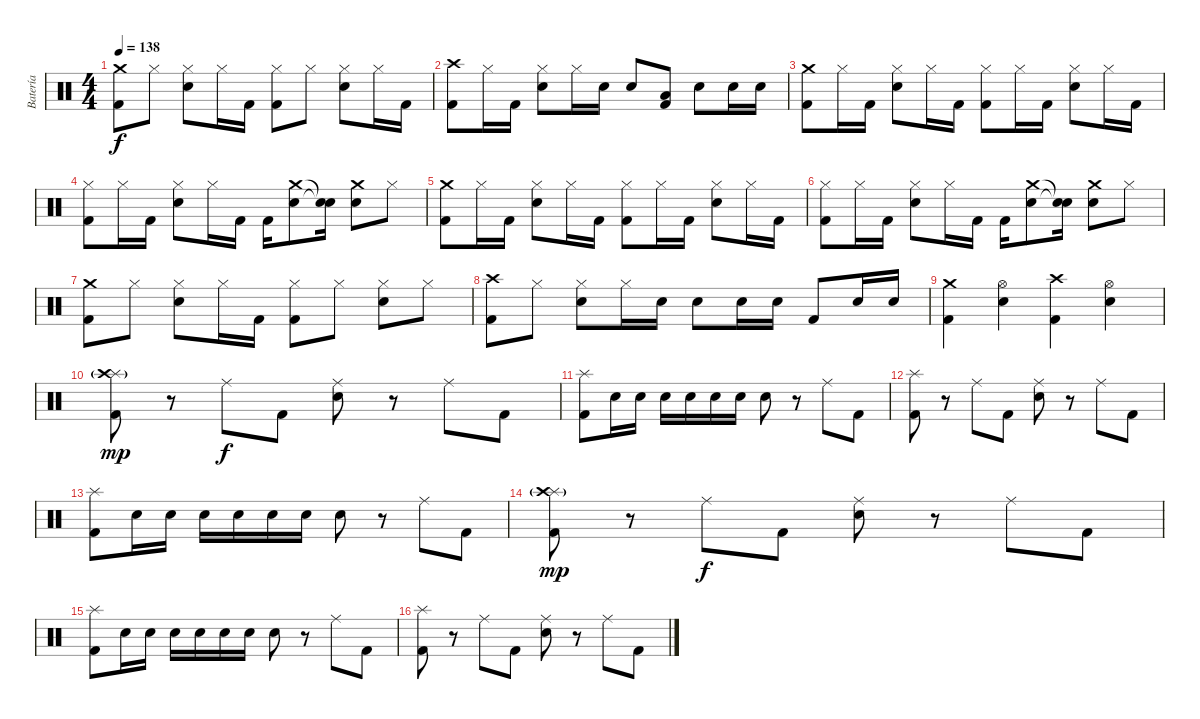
\track ("Batería" "Batería") {instrument percussion}
\staff {score}
\articulation defaults
\ts (4 4)
\tempo 138
\clef neutral
\ks c
("Crash medium (hit)" "Kick (hit) 2").8{dy f} "Hi-Hat (closed)".8 ("Hi-Hat (closed)" "Snare (hit) 2").8 "Hi-Hat (closed)".16 "Kick (hit) 2".16 ("Hi-Hat (closed)" "Kick (hit) 2").8 "Hi-Hat (closed)".8 ("Hi-Hat (closed)" "Snare (hit) 2").8 "Hi-Hat (closed)".16 "Kick (hit) 2".16 |
("Crash high (hit)" "Kick (hit) 2").8 "Hi-Hat (closed)".16 "Kick (hit) 2".16 ("Hi-Hat (closed)" "Snare (hit) 2").8 "Hi-Hat (closed)".16 "Snare (hit) 2".16 "Snare (hit) 2".8 ("Low Floor Tom (hit)" "Kick (hit) 2").8 "Snare (hit) 2".8 "Snare (hit) 2".16 "Snare (hit) 2".16 |
("Crash medium (hit)" "Kick (hit) 2").8 "Hi-Hat (closed)".16 "Kick (hit) 2".16 ("Hi-Hat (closed)" "Snare (hit) 2").8 "Hi-Hat (closed)".16 "Kick (hit) 2".16 ("Hi-Hat (closed)" "Kick (hit) 2").8 "Hi-Hat (closed)".16 "Kick (hit) 2".16 ("Hi-Hat (closed)" "Snare (hit) 2").8 "Hi-Hat (closed)".16 "Kick (hit) 2".16 |
("Hi-Hat (closed)" "Kick (hit) 2").8 "Hi-Hat (closed)".16 "Kick (hit) 2".16 ("Hi-Hat (closed)" "Snare (hit) 2").8 "Hi-Hat (closed)".16 "Kick (hit) 2".16 "Kick (hit) 2".16 ("Crash medium (hit)" "Snare (hit) 2").8 ("Snare (hit)"{t} "Snare (hit)"{t}).16 ("Crash medium (hit)" "Snare (hit) 2").8 "Hi-Hat (closed)".8 |
("Crash medium (hit)" "Kick (hit) 2").8 "Hi-Hat (closed)".16 "Kick (hit) 2".16 ("Hi-Hat (closed)" "Snare (hit) 2").8 "Hi-Hat (closed)".16 "Kick (hit) 2".16 ("Hi-Hat (closed)" "Kick (hit) 2").8 "Hi-Hat (closed)".16 "Kick (hit) 2".16 ("Hi-Hat (closed)" "Snare (hit) 2").8 "Hi-Hat (closed)".16 "Kick (hit) 2".16 |
("Hi-Hat (closed)" "Kick (hit) 2").8 "Hi-Hat (closed)".16 "Kick (hit) 2".16 ("Hi-Hat (closed)" "Snare (hit) 2").8 "Hi-Hat (closed)".16 "Kick (hit) 2".16 "Kick (hit) 2".16 ("Crash medium (hit)" "Snare (hit) 2").8 ("Snare (hit)"{t} "Snare (hit)"{t}).16 ("Crash medium (hit)" "Snare (hit) 2").8 "Hi-Hat (closed)".8 |
("Crash medium (hit)" "Kick (hit) 2").8 "Hi-Hat (closed)".8 ("Hi-Hat (closed)" "Snare (hit) 2").8 "Hi-Hat (closed)".16 "Kick (hit) 2".16 ("Hi-Hat (closed)" "Kick (hit) 2").8 "Hi-Hat (closed)".8 ("Hi-Hat (closed)" "Snare (hit) 2").8 "Hi-Hat (closed)".8 |
("Crash high (hit)" "Kick (hit) 2").8 "Hi-Hat (closed)".8 ("Hi-Hat (closed)" "Snare (hit) 2").8 "Hi-Hat (closed)".16 "Snare (hit) 2".16 "Snare (hit) 2".8 "Snare (hit) 2".16 "Snare (hit) 2".16 "Kick (hit) 2".8 "Snare (hit) 2".16 "Snare (hit) 2".16 |
("Crash medium (hit)" "Kick (hit) 2").4 ("Hi-Hat (open)" "Snare (hit) 2").4 ("Crash high (hit)" "Kick (hit) 2").4 ("Hi-Hat (open)" "Snare (hit) 2").4 |
("Splash (hit)" "Crash high (hit)"{g} "Kick (hit) 2").8{dy mp} r.8 "Ride (middle)".8{dy f} "Kick (hit) 2".8 ("Ride (middle)" "Snare (hit) 2").8 r.8 "Ride (middle)".8 "Kick (hit) 2".8 |
("Splash (hit)" "Kick (hit) 2").8 "Snare (hit) 2".16 "Snare (hit) 2".16 "Snare (hit) 2".16 "Snare (hit) 2".16 "Snare (hit) 2".16 "Snare (hit) 2".16 "Snare (hit) 2".8 r.8 "Ride (middle)".8 "Kick (hit) 2".8 |
("Splash (hit)" "Kick (hit) 2").8 r.8 "Ride (middle)".8 "Kick (hit) 2".8 ("Ride (middle)" "Snare (hit) 2").8 r.8 "Ride (middle)".8 "Kick (hit) 2".8 |
("Splash (hit)" "Kick (hit) 2").8 "Snare (hit) 2".16 "Snare (hit) 2".16 "Snare (hit) 2".16 "Snare (hit) 2".16 "Snare (hit) 2".16 "Snare (hit) 2".16 "Snare (hit) 2".8 r.8 "Ride (middle)".8 "Kick (hit) 2".8 |
("Splash (hit)" "Crash high (hit)"{g} "Kick (hit) 2").8{dy mp} r.8 "Ride (middle)".8{dy f} "Kick (hit) 2".8 ("Ride (middle)" "Snare (hit) 2").8 r.8 "Ride (middle)".8 "Kick (hit) 2".8 |
("Splash (hit)" "Kick (hit) 2").8 "Snare (hit) 2".16 "Snare (hit) 2".16 "Snare (hit) 2".16 "Snare (hit) 2".16 "Snare (hit) 2".16 "Snare (hit) 2".16 "Snare (hit) 2".8 r.8 "Ride (middle)".8 "Kick (hit) 2".8 |
("Splash (hit)" "Kick (hit) 2").8 r.8 "Ride (middle)".8 "Kick (hit) 2".8 ("Ride (middle)" "Snare (hit) 2").8 r.8 "Ride (middle)".8 "Kick (hit) 2".8
